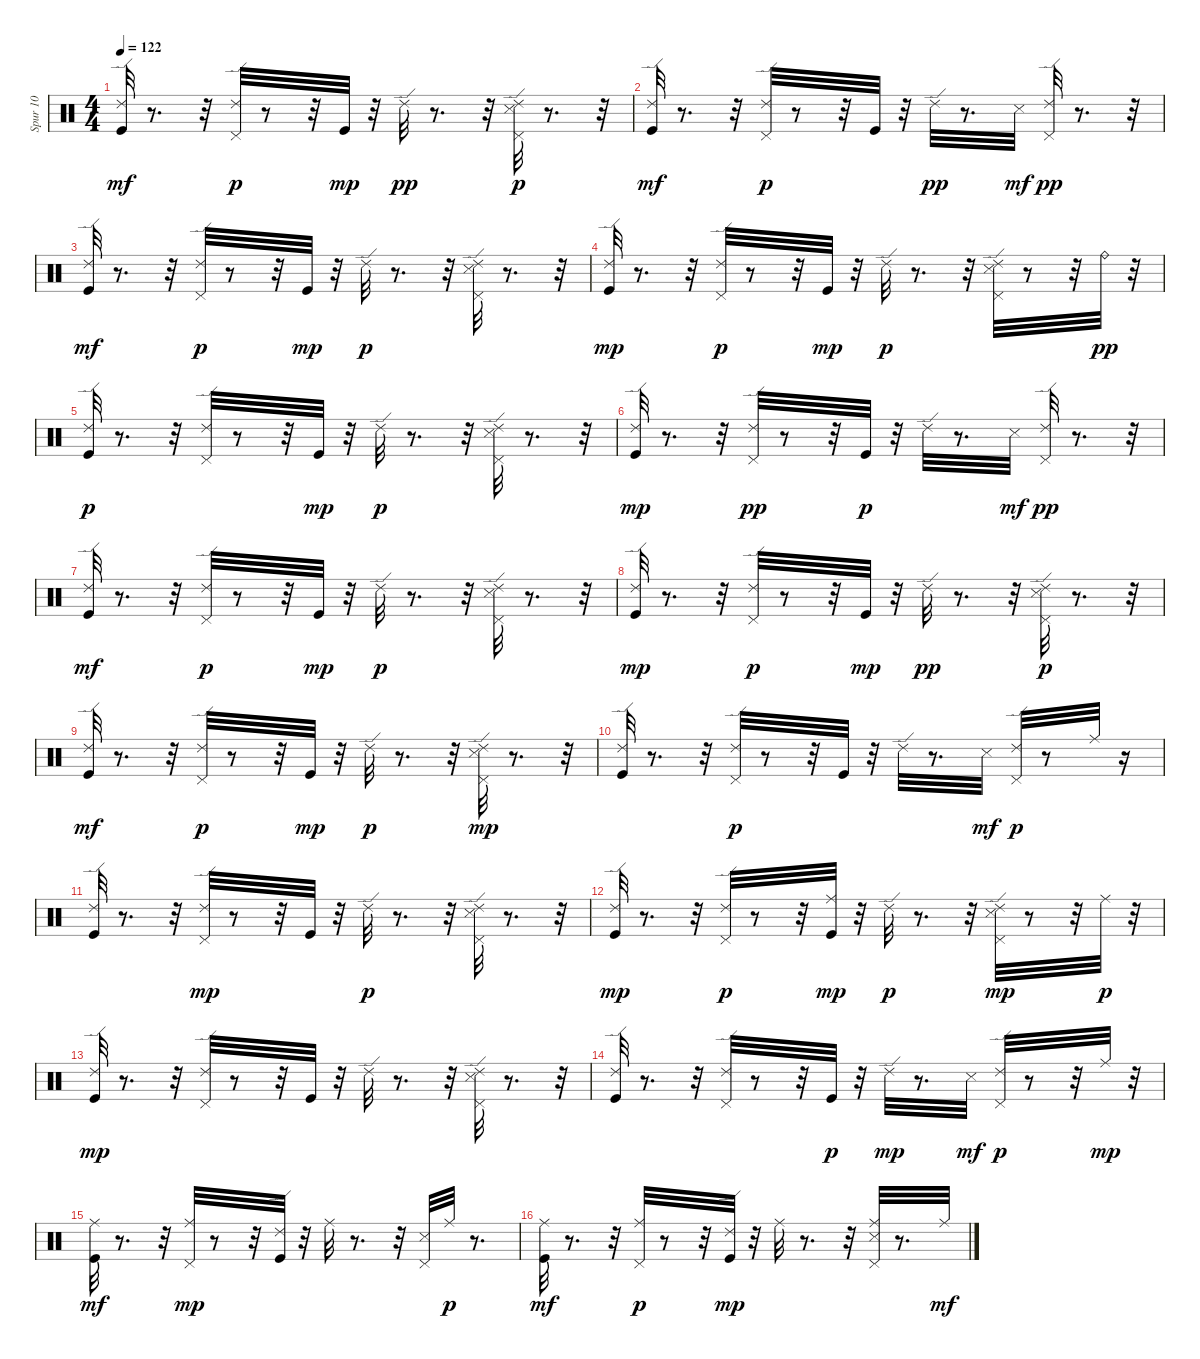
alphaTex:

\track ("Spur 10" "Spur 10") {instrument percussion}
\staff {score}
\articulation defaults
\ts (4 4)
\tempo 122
\clef neutral
\ks c
("Kick (hit)" "Ride (edge) 2").32{dy mf} r.8{d} r.32 ("Pedal Hi-Hat (hit)" "Ride (edge) 2").32{dy p} r.8 r.32 "Kick (hit)".32{dy mp} r.32 "Ride (edge) 2".32{dy pp} r.8{d} r.32 ("Pedal Hi-Hat (hit)" "Snare (side stick) 3" "Ride (edge) 2").32{dy p} r.8{d} r.32 |
("Kick (hit)" "Ride (edge) 2").32{dy mf} r.8{d} r.32 ("Pedal Hi-Hat (hit)" "Ride (edge) 2").32{dy p} r.8 r.32 "Kick (hit)".32 r.32 "Ride (edge) 2".32{dy pp} r.8{d} "Snare (side stick) 3".32{dy mf} ("Pedal Hi-Hat (hit)" "Ride (edge) 2").32{dy pp} r.8{d} r.32 |
("Kick (hit)" "Ride (edge) 2").32{dy mf} r.8{d} r.32 ("Pedal Hi-Hat (hit)" "Ride (edge) 2").32{dy p} r.8 r.32 "Kick (hit)".32{dy mp} r.32 "Ride (edge) 2".32{dy p} r.8{d} r.32 ("Snare (side stick) 3" "Pedal Hi-Hat (hit)" "Ride (edge) 2").32 r.8{d} r.32 |
("Kick (hit)" "Ride (edge) 2").32{dy mp} r.8{d} r.32 ("Pedal Hi-Hat (hit)" "Ride (edge) 2").32{dy p} r.8 r.32 "Kick (hit)".32{dy mp} r.32 "Ride (edge) 2".32{dy p} r.8{d} r.32 ("Snare (side stick) 3" "Pedal Hi-Hat (hit)" "Ride (edge) 2").32 r.8 r.32 "Ride (bell)".32{dy pp} r.32 |
("Kick (hit)" "Ride (edge) 2").32{dy p} r.8{d} r.32 ("Pedal Hi-Hat (hit)" "Ride (edge) 2").32 r.8 r.32 "Kick (hit)".32{dy mp} r.32 "Ride (edge) 2".32{dy p} r.8{d} r.32 ("Pedal Hi-Hat (hit)" "Snare (side stick) 3" "Ride (edge) 2").32 r.8{d} r.32 |
("Kick (hit)" "Ride (edge) 2").32{dy mp} r.8{d} r.32 ("Pedal Hi-Hat (hit)" "Ride (edge) 2").32{dy pp} r.8 r.32 "Kick (hit)".32{dy p} r.32 "Ride (edge) 2".32 r.8{d} "Snare (side stick) 3".32{dy mf} ("Pedal Hi-Hat (hit)" "Ride (edge) 2").32{dy pp} r.8{d} r.32 |
("Ride (edge) 2" "Kick (hit)").32{dy mf} r.8{d} r.32 ("Pedal Hi-Hat (hit)" "Ride (edge) 2").32{dy p} r.8 r.32 "Kick (hit)".32{dy mp} r.32 "Ride (edge) 2".32{dy p} r.8{d} r.32 ("Snare (side stick) 3" "Pedal Hi-Hat (hit)" "Ride (edge) 2").32 r.8{d} r.32 |
("Kick (hit)" "Ride (edge) 2").32{dy mp} r.8{d} r.32 ("Pedal Hi-Hat (hit)" "Ride (edge) 2").32{dy p} r.8 r.32 "Kick (hit)".32{dy mp} r.32 "Ride (edge) 2".32{dy pp} r.8{d} r.32 ("Snare (side stick) 3" "Pedal Hi-Hat (hit)" "Ride (edge) 2").32{dy p} r.8{d} r.32 |
("Kick (hit)" "Ride (edge) 2").32{dy mf} r.8{d} r.32 ("Pedal Hi-Hat (hit)" "Ride (edge) 2").32{dy p} r.8 r.32 "Kick (hit)".32{dy mp} r.32 "Ride (edge) 2".32{dy p} r.8{d} r.32 ("Ride (edge) 2" "Pedal Hi-Hat (hit)" "Snare (side stick) 3").32{dy mp} r.8{d} r.32 |
("Kick (hit)" "Ride (edge) 2").32 r.8{d} r.32 ("Pedal Hi-Hat (hit)" "Ride (edge) 2").32{dy p} r.8 r.32 "Kick (hit)".32 r.32 "Ride (edge) 2".32 r.8{d} "Snare (side stick) 3".32{dy mf} ("Pedal Hi-Hat (hit)" "Ride (edge) 2").32{dy p} r.8 "Ride (middle)".32 r.16 |
("Kick (hit)" "Ride (edge) 2").32 r.8{d} r.32 ("Pedal Hi-Hat (hit)" "Ride (edge) 2").32{dy mp} r.8 r.32 "Kick (hit)".32 r.32 "Ride (edge) 2".32{dy p} r.8{d} r.32 ("Snare (side stick) 3" "Pedal Hi-Hat (hit)" "Ride (edge) 2").32 r.8{d} r.32 |
("Kick (hit)" "Ride (edge) 2").32{dy mp} r.8{d} r.32 ("Pedal Hi-Hat (hit)" "Ride (edge) 2").32{dy p} r.8 r.32 ("Ride (middle)" "Kick (hit)").32{dy mp} r.32 "Ride (edge) 2".32{dy p} r.8{d} r.32 ("Snare (side stick) 3" "Pedal Hi-Hat (hit)" "Ride (edge) 2").32{dy mp} r.8 r.32 "Ride (middle)".32{dy p} r.32 |
("Kick (hit)" "Ride (edge) 2").32{dy mp} r.8{d} r.32 ("Pedal Hi-Hat (hit)" "Ride (edge) 2").32 r.8 r.32 "Kick (hit)".32 r.32 "Ride (edge) 2".32 r.8{d} r.32 ("Pedal Hi-Hat (hit)" "Snare (side stick) 3" "Ride (edge) 2").32 r.8{d} r.32 |
("Kick (hit)" "Ride (edge) 2").32 r.8{d} r.32 ("Pedal Hi-Hat (hit)" "Ride (edge) 2").32 r.8 r.32 "Kick (hit)".32{dy p} r.32 "Ride (edge) 2".32{dy mp} r.8{d} "Snare (side stick) 3".32{dy mf} ("Pedal Hi-Hat (hit)" "Ride (edge) 2").32{dy p} r.8 r.32 "Ride (middle)".32{dy mp} r.32 |
("Kick (hit)" "Ride (middle)").32{dy mf} r.8{d} r.32 ("Pedal Hi-Hat (hit)" "Ride (middle)").32{dy mp} r.8 r.32 ("Ride (edge) 2" "Kick (hit)").32 r.32 "Ride (middle)".32 r.8{d} r.32 ("Snare (side stick) 3" "Pedal Hi-Hat (hit)").32 "Ride (middle)".32{dy p} r.8{d} |
("Ride (middle)" "Kick (hit)").32{dy mf} r.8{d} r.32 ("Ride (middle)" "Pedal Hi-Hat (hit)").32{dy p} r.8 r.32 ("Ride (edge) 2" "Kick (hit)").32{dy mp} r.32 "Ride (middle)".32 r.8{d} r.32 ("Snare (side stick) 3" "Ride (middle)" "Pedal Hi-Hat (hit)").32 r.8{d} "Ride (middle)".32{dy mf}
